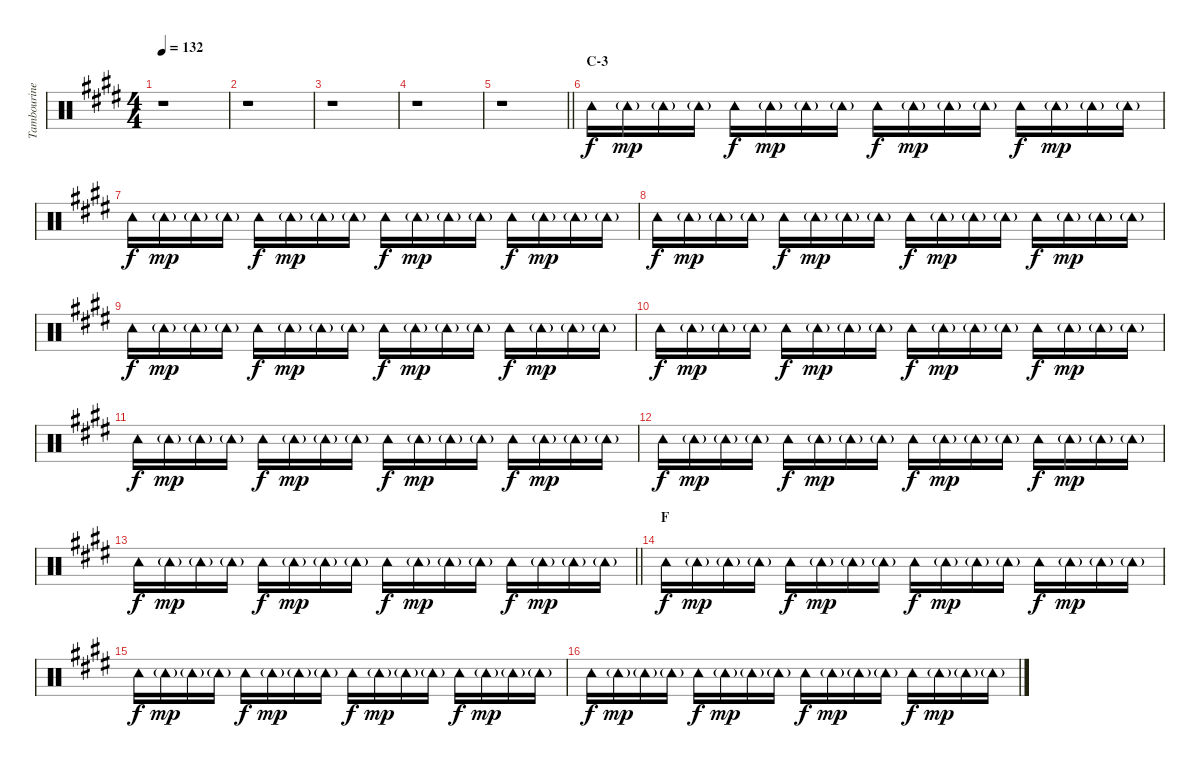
\track ("Tambourine" "Tambourine") {instrument percussion}
\staff {score}
\articulation defaults
\ts (4 4)
\tempo 132
\clef neutral
\ks e
r.1{dy mp} |
r.1 |
r.1 |
r.1 |
\barLineRight lightlight
r.1 |
\section ("" "C-3")
"Tambourine (hit)".16{dy f} "Tambourine (hit)"{g}.16{dy mp} "Tambourine (hit)"{g}.16 "Tambourine (hit)"{g}.16 "Tambourine (hit)".16{dy f} "Tambourine (hit)"{g}.16{dy mp} "Tambourine (hit)"{g}.16 "Tambourine (hit)"{g}.16 "Tambourine (hit)".16{dy f} "Tambourine (hit)"{g}.16{dy mp} "Tambourine (hit)"{g}.16 "Tambourine (hit)"{g}.16 "Tambourine (hit)".16{dy f} "Tambourine (hit)"{g}.16{dy mp} "Tambourine (hit)"{g}.16 "Tambourine (hit)"{g}.16 |
"Tambourine (hit)".16{dy f} "Tambourine (hit)"{g}.16{dy mp} "Tambourine (hit)"{g}.16 "Tambourine (hit)"{g}.16 "Tambourine (hit)".16{dy f} "Tambourine (hit)"{g}.16{dy mp} "Tambourine (hit)"{g}.16 "Tambourine (hit)"{g}.16 "Tambourine (hit)".16{dy f} "Tambourine (hit)"{g}.16{dy mp} "Tambourine (hit)"{g}.16 "Tambourine (hit)"{g}.16 "Tambourine (hit)".16{dy f} "Tambourine (hit)"{g}.16{dy mp} "Tambourine (hit)"{g}.16 "Tambourine (hit)"{g}.16 |
"Tambourine (hit)".16{dy f} "Tambourine (hit)"{g}.16{dy mp} "Tambourine (hit)"{g}.16 "Tambourine (hit)"{g}.16 "Tambourine (hit)".16{dy f} "Tambourine (hit)"{g}.16{dy mp} "Tambourine (hit)"{g}.16 "Tambourine (hit)"{g}.16 "Tambourine (hit)".16{dy f} "Tambourine (hit)"{g}.16{dy mp} "Tambourine (hit)"{g}.16 "Tambourine (hit)"{g}.16 "Tambourine (hit)".16{dy f} "Tambourine (hit)"{g}.16{dy mp} "Tambourine (hit)"{g}.16 "Tambourine (hit)"{g}.16 |
"Tambourine (hit)".16{dy f} "Tambourine (hit)"{g}.16{dy mp} "Tambourine (hit)"{g}.16 "Tambourine (hit)"{g}.16 "Tambourine (hit)".16{dy f} "Tambourine (hit)"{g}.16{dy mp} "Tambourine (hit)"{g}.16 "Tambourine (hit)"{g}.16 "Tambourine (hit)".16{dy f} "Tambourine (hit)"{g}.16{dy mp} "Tambourine (hit)"{g}.16 "Tambourine (hit)"{g}.16 "Tambourine (hit)".16{dy f} "Tambourine (hit)"{g}.16{dy mp} "Tambourine (hit)"{g}.16 "Tambourine (hit)"{g}.16 |
"Tambourine (hit)".16{dy f} "Tambourine (hit)"{g}.16{dy mp} "Tambourine (hit)"{g}.16 "Tambourine (hit)"{g}.16 "Tambourine (hit)".16{dy f} "Tambourine (hit)"{g}.16{dy mp} "Tambourine (hit)"{g}.16 "Tambourine (hit)"{g}.16 "Tambourine (hit)".16{dy f} "Tambourine (hit)"{g}.16{dy mp} "Tambourine (hit)"{g}.16 "Tambourine (hit)"{g}.16 "Tambourine (hit)".16{dy f} "Tambourine (hit)"{g}.16{dy mp} "Tambourine (hit)"{g}.16 "Tambourine (hit)"{g}.16 |
"Tambourine (hit)".16{dy f} "Tambourine (hit)"{g}.16{dy mp} "Tambourine (hit)"{g}.16 "Tambourine (hit)"{g}.16 "Tambourine (hit)".16{dy f} "Tambourine (hit)"{g}.16{dy mp} "Tambourine (hit)"{g}.16 "Tambourine (hit)"{g}.16 "Tambourine (hit)".16{dy f} "Tambourine (hit)"{g}.16{dy mp} "Tambourine (hit)"{g}.16 "Tambourine (hit)"{g}.16 "Tambourine (hit)".16{dy f} "Tambourine (hit)"{g}.16{dy mp} "Tambourine (hit)"{g}.16 "Tambourine (hit)"{g}.16 |
"Tambourine (hit)".16{dy f} "Tambourine (hit)"{g}.16{dy mp} "Tambourine (hit)"{g}.16 "Tambourine (hit)"{g}.16 "Tambourine (hit)".16{dy f} "Tambourine (hit)"{g}.16{dy mp} "Tambourine (hit)"{g}.16 "Tambourine (hit)"{g}.16 "Tambourine (hit)".16{dy f} "Tambourine (hit)"{g}.16{dy mp} "Tambourine (hit)"{g}.16 "Tambourine (hit)"{g}.16 "Tambourine (hit)".16{dy f} "Tambourine (hit)"{g}.16{dy mp} "Tambourine (hit)"{g}.16 "Tambourine (hit)"{g}.16 |
\barLineRight lightlight "Tambourine (hit)".16{dy f} "Tambourine (hit)"{g}.16{dy mp} "Tambourine (hit)"{g}.16 "Tambourine (hit)"{g}.16 "Tambourine (hit)".16{dy f} "Tambourine (hit)"{g}.16{dy mp} "Tambourine (hit)"{g}.16 "Tambourine (hit)"{g}.16 "Tambourine (hit)".16{dy f} "Tambourine (hit)"{g}.16{dy mp} "Tambourine (hit)"{g}.16 "Tambourine (hit)"{g}.16 "Tambourine (hit)".16{dy f} "Tambourine (hit)"{g}.16{dy mp} "Tambourine (hit)"{g}.16 "Tambourine (hit)"{g}.16
|
\section ("" "F")
"Tambourine (hit)".16{dy f} "Tambourine (hit)"{g}.16{dy mp} "Tambourine (hit)"{g}.16 "Tambourine (hit)"{g}.16 "Tambourine (hit)".16{dy f} "Tambourine (hit)"{g}.16{dy mp} "Tambourine (hit)"{g}.16 "Tambourine (hit)"{g}.16 "Tambourine (hit)".16{dy f} "Tambourine (hit)"{g}.16{dy mp} "Tambourine (hit)"{g}.16 "Tambourine (hit)"{g}.16 "Tambourine (hit)".16{dy f} "Tambourine (hit)"{g}.16{dy mp} "Tambourine (hit)"{g}.16 "Tambourine (hit)"{g}.16 |
"Tambourine (hit)".16{dy f} "Tambourine (hit)"{g}.16{dy mp} "Tambourine (hit)"{g}.16 "Tambourine (hit)"{g}.16 "Tambourine (hit)".16{dy f} "Tambourine (hit)"{g}.16{dy mp} "Tambourine (hit)"{g}.16 "Tambourine (hit)"{g}.16 "Tambourine (hit)".16{dy f} "Tambourine (hit)"{g}.16{dy mp} "Tambourine (hit)"{g}.16 "Tambourine (hit)"{g}.16 "Tambourine (hit)".16{dy f} "Tambourine (hit)"{g}.16{dy mp} "Tambourine (hit)"{g}.16 "Tambourine (hit)"{g}.16 |
"Tambourine (hit)".16{dy f} "Tambourine (hit)"{g}.16{dy mp} "Tambourine (hit)"{g}.16 "Tambourine (hit)"{g}.16 "Tambourine (hit)".16{dy f} "Tambourine (hit)"{g}.16{dy mp} "Tambourine (hit)"{g}.16 "Tambourine (hit)"{g}.16 "Tambourine (hit)".16{dy f} "Tambourine (hit)"{g}.16{dy mp} "Tambourine (hit)"{g}.16 "Tambourine (hit)"{g}.16 "Tambourine (hit)".16{dy f} "Tambourine (hit)"{g}.16{dy mp} "Tambourine (hit)"{g}.16 "Tambourine (hit)"{g}.16
